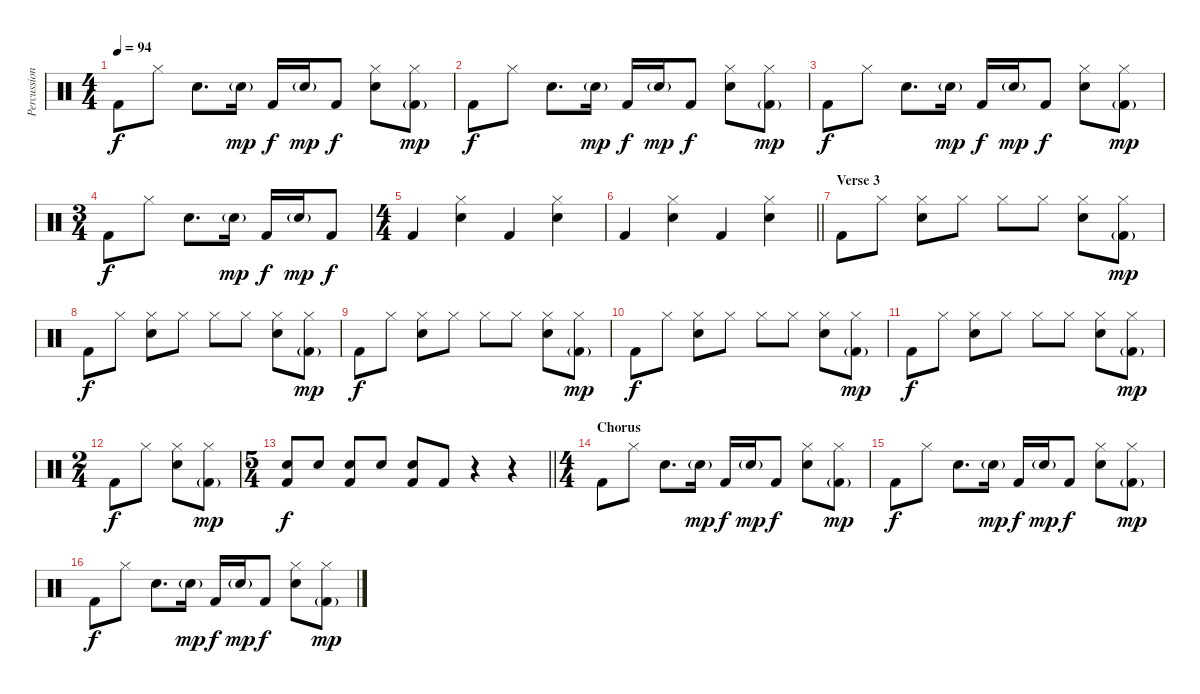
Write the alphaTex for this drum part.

\track ("Percussion" "Percussion") {instrument percussion}
\staff {score}
\articulation defaults
\ts (4 4)
\tempo 94
\clef neutral
\ks c "Kick (hit) 2".8{dy f} "Hi-Hat (closed)".8 "Snare (hit) 2".8{d} "Snare (hit) 2"{g}.16{dy mp} "Kick (hit) 2".16{dy f} "Snare (hit) 2"{g}.16{dy mp} "Kick (hit) 2".8{dy f}
("Hi-Hat (closed)" "Snare (hit) 2").8 ("Hi-Hat (closed)" "Kick (hit) 2"{g}).8{dy mp} |
"Kick (hit) 2".8{dy f} "Hi-Hat (closed)".8 "Snare (hit) 2".8{d} "Snare (hit) 2"{g}.16{dy mp} "Kick (hit) 2".16{dy f} "Snare (hit) 2"{g}.16{dy mp} "Kick (hit) 2".8{dy f} ("Hi-Hat (closed)" "Snare (hit) 2").8 ("Hi-Hat (closed)" "Kick (hit) 2"{g}).8{dy mp} |
"Kick (hit) 2".8{dy f} "Hi-Hat (closed)".8 "Snare (hit) 2".8{d} "Snare (hit) 2"{g}.16{dy mp} "Kick (hit) 2".16{dy f} "Snare (hit) 2"{g}.16{dy mp} "Kick (hit) 2".8{dy f} ("Hi-Hat (closed)" "Snare (hit) 2").8 ("Hi-Hat (closed)" "Kick (hit) 2"{g}).8{dy mp} |
\ts (3 4)
"Kick (hit) 2".8{dy f} "Hi-Hat (closed)".8 "Snare (hit) 2".8{d} "Snare (hit) 2"{g}.16{dy mp} "Kick (hit) 2".16{dy f} "Snare (hit) 2"{g}.16{dy mp} "Kick (hit) 2".8{dy f} |
\ts (4 4)
"Kick (hit) 2".4 ("Hi-Hat (closed)" "Snare (hit) 2").4 "Kick (hit) 2".4 ("Hi-Hat (closed)" "Snare (hit) 2").4 |
\barLineRight lightlight "Kick (hit) 2".4
("Hi-Hat (closed)" "Snare (hit) 2").4 "Kick (hit) 2".4 ("Hi-Hat (closed)" "Snare (hit) 2").4 |
\section ("" "Verse 3")
"Kick (hit) 2".8 "Hi-Hat (closed)".8 ("Hi-Hat (closed)" "Snare (hit) 2").8 "Hi-Hat (closed)".8 "Hi-Hat (closed)".8 "Hi-Hat (closed)".8 ("Hi-Hat (closed)" "Snare (hit) 2").8 ("Hi-Hat (closed)" "Kick (hit) 2"{g}).8{dy mp} |
"Kick (hit) 2".8{dy f} "Hi-Hat (closed)".8 ("Hi-Hat (closed)" "Snare (hit) 2").8 "Hi-Hat (closed)".8 "Hi-Hat (closed)".8 "Hi-Hat (closed)".8 ("Hi-Hat (closed)" "Snare (hit) 2").8 ("Hi-Hat (closed)" "Kick (hit) 2"{g}).8{dy mp} |
"Kick (hit) 2".8{dy f} "Hi-Hat (closed)".8 ("Hi-Hat (closed)" "Snare (hit) 2").8 "Hi-Hat (closed)".8 "Hi-Hat (closed)".8 "Hi-Hat (closed)".8 ("Hi-Hat (closed)" "Snare (hit) 2").8 ("Hi-Hat (closed)" "Kick (hit) 2"{g}).8{dy mp} |
"Kick (hit) 2".8{dy f} "Hi-Hat (closed)".8 ("Hi-Hat (closed)" "Snare (hit) 2").8 "Hi-Hat (closed)".8 "Hi-Hat (closed)".8 "Hi-Hat (closed)".8 ("Hi-Hat (closed)" "Snare (hit) 2").8 ("Hi-Hat (closed)" "Kick (hit) 2"{g}).8{dy mp} |
"Kick (hit) 2".8{dy f} "Hi-Hat (closed)".8 ("Hi-Hat (closed)" "Snare (hit) 2").8 "Hi-Hat (closed)".8 "Hi-Hat (closed)".8 "Hi-Hat (closed)".8 ("Hi-Hat (closed)" "Snare (hit) 2").8 ("Hi-Hat (closed)" "Kick (hit) 2"{g}).8{dy mp} |
\ts (2 4)
"Kick (hit) 2".8{dy f} "Hi-Hat (closed)".8 ("Hi-Hat (closed)" "Snare (hit) 2").8 ("Hi-Hat (closed)" "Kick (hit) 2"{g}).8{dy mp} |
\ts (5 4)
\barLineRight lightlight
("Snare (hit) 2" "Kick (hit) 2").8{dy f} "Snare (hit) 2".8 ("Snare (hit) 2" "Kick (hit) 2").8 "Snare (hit) 2".8 ("Snare (hit) 2" "Kick (hit) 2").8 "Kick (hit) 2".8 r.4 r.4 |
\ts (4 4)
\section ("" "Chorus")
"Kick (hit) 2".8 "Hi-Hat (closed)".8 "Snare (hit) 2".8{d} "Snare (hit) 2"{g}.16{dy mp} "Kick (hit) 2".16{dy f} "Snare (hit) 2"{g}.16{dy mp} "Kick (hit) 2".8{dy f} ("Hi-Hat (closed)" "Snare (hit) 2").8 ("Hi-Hat (closed)" "Kick (hit) 2"{g}).8{dy mp} |
"Kick (hit) 2".8{dy f} "Hi-Hat (closed)".8 "Snare (hit) 2".8{d} "Snare (hit) 2"{g}.16{dy mp} "Kick (hit) 2".16{dy f} "Snare (hit) 2"{g}.16{dy mp} "Kick (hit) 2".8{dy f} ("Hi-Hat (closed)" "Snare (hit) 2").8 ("Hi-Hat (closed)" "Kick (hit) 2"{g}).8{dy mp} |
"Kick (hit) 2".8{dy f} "Hi-Hat (closed)".8 "Snare (hit) 2".8{d} "Snare (hit) 2"{g}.16{dy mp} "Kick (hit) 2".16{dy f} "Snare (hit) 2"{g}.16{dy mp} "Kick (hit) 2".8{dy f} ("Hi-Hat (closed)" "Snare (hit) 2").8 ("Hi-Hat (closed)" "Kick (hit) 2"{g}).8{dy mp}
